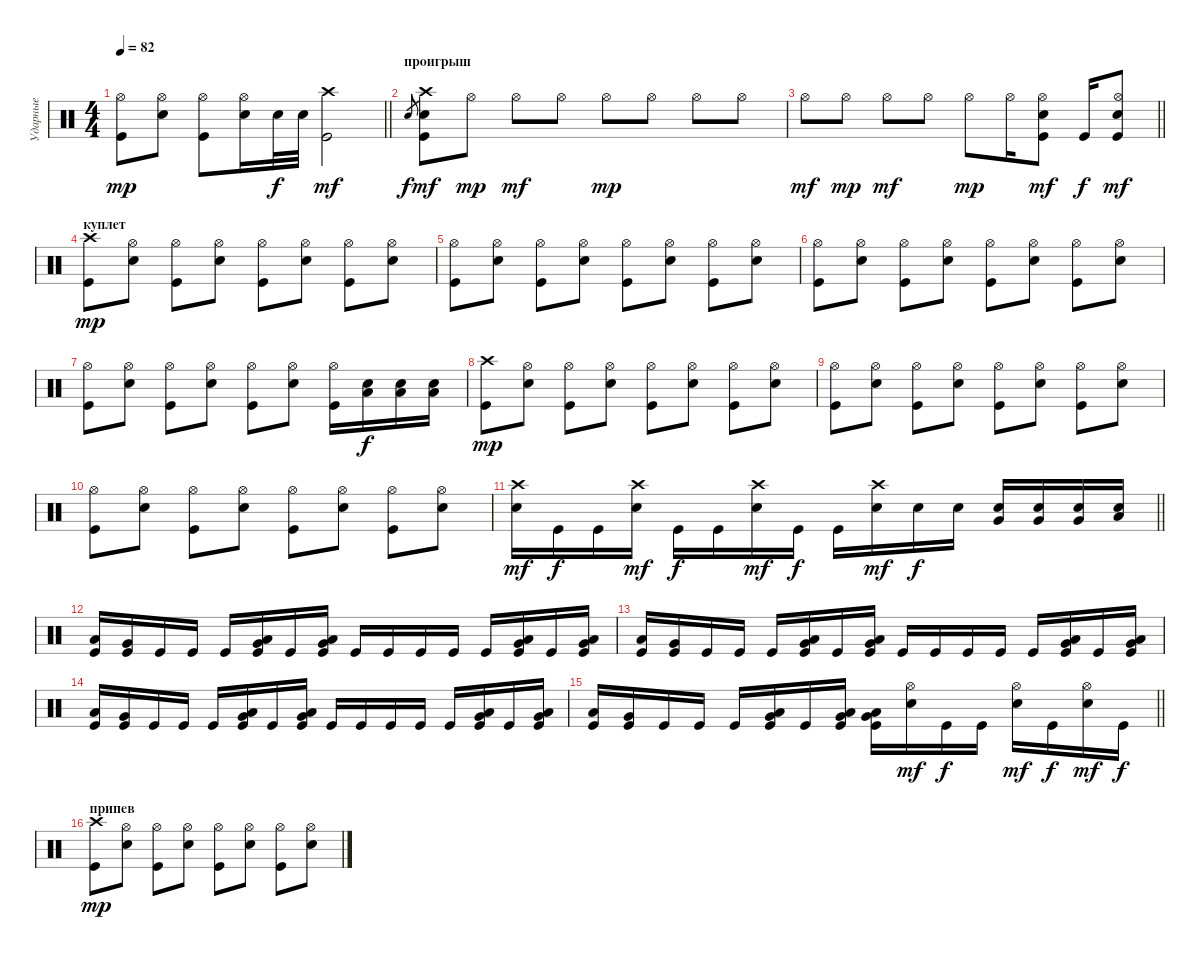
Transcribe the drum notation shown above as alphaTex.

\track ("Ударные" "Ударные") {instrument percussion}
\staff {score}
\articulation defaults
\ts (4 4)
\tempo 82
\clef neutral
\barLineRight lightlight
\ks c
("Kick (hit)" "Hi-Hat (open)").8{dy mp} ("Snare (hit) 2" "Hi-Hat (open)").8 ("Kick (hit)" "Hi-Hat (open)").8 ("Snare (hit) 2" "Hi-Hat (open)").16 "Snare (hit) 2".32{dy f} "Snare (hit) 2".32 ("Kick (hit)" "Crash high (hit)").2{dy mf} |
\section ("" "проигрыш")
"Snare (hit) 2".8{gr dy f} ("Kick (hit)" "Snare (hit) 2" "Crash high (hit)").8{dy mf} "Hi-Hat (open)".8{dy mp} "Hi-Hat (open)".8{dy mf} "Hi-Hat (open)".8 "Hi-Hat (open)".8{dy mp} "Hi-Hat (open)".8 "Hi-Hat (open)".8 "Hi-Hat (open)".8 |
\barLineRight lightlight "Hi-Hat (open)".8{dy mf} "Hi-Hat (open)".8{dy mp} "Hi-Hat (open)".8{dy mf} "Hi-Hat (open)".8 "Hi-Hat (open)".8{dy mp} "Hi-Hat (open)".16
("Kick (hit)" "Snare (hit) 2" "Hi-Hat (open)").8{dy mf} "Kick (hit)".16{dy f} ("Kick (hit)" "Snare (hit) 2" "Hi-Hat (open)").8{dy mf} |
\section ("" "куплет")
("Kick (hit)" "Crash high (hit)").8{dy mp} ("Snare (hit) 2" "Hi-Hat (open)").8 ("Kick (hit)" "Hi-Hat (open)").8 ("Snare (hit) 2" "Hi-Hat (open)").8 ("Kick (hit)" "Hi-Hat (open)").8 ("Snare (hit) 2" "Hi-Hat (open)").8 ("Kick (hit)" "Hi-Hat (open)").8 ("Snare (hit) 2" "Hi-Hat (open)").8 |
("Kick (hit)" "Hi-Hat (open)").8 ("Snare (hit) 2" "Hi-Hat (open)").8 ("Kick (hit)" "Hi-Hat (open)").8 ("Snare (hit) 2" "Hi-Hat (open)").8 ("Kick (hit)" "Hi-Hat (open)").8 ("Snare (hit) 2" "Hi-Hat (open)").8 ("Kick (hit)" "Hi-Hat (open)").8 ("Snare (hit) 2" "Hi-Hat (open)").8 |
("Kick (hit)" "Hi-Hat (open)").8 ("Snare (hit) 2" "Hi-Hat (open)").8 ("Kick (hit)" "Hi-Hat (open)").8 ("Snare (hit) 2" "Hi-Hat (open)").8 ("Kick (hit)" "Hi-Hat (open)").8 ("Snare (hit) 2" "Hi-Hat (open)").8 ("Kick (hit)" "Hi-Hat (open)").8 ("Snare (hit) 2" "Hi-Hat (open)").8 |
("Kick (hit)" "Hi-Hat (open)").8 ("Snare (hit) 2" "Hi-Hat (open)").8 ("Kick (hit)" "Hi-Hat (open)").8 ("Snare (hit) 2" "Hi-Hat (open)").8 ("Kick (hit)" "Hi-Hat (open)").8 ("Snare (hit) 2" "Hi-Hat (open)").8 ("Kick (hit)" "Hi-Hat (open)").16 ("Snare (hit) 2" "Low Floor Tom (hit)").16{dy f} ("Snare (hit) 2" "Low Floor Tom (hit)").16 ("Snare (hit) 2" "Low Floor Tom (hit)").16 |
("Kick (hit)" "Crash high (hit)").8{dy mp} ("Snare (hit) 2" "Hi-Hat (open)").8 ("Kick (hit)" "Hi-Hat (open)").8 ("Snare (hit) 2" "Hi-Hat (open)").8 ("Kick (hit)" "Hi-Hat (open)").8 ("Snare (hit) 2" "Hi-Hat (open)").8 ("Kick (hit)" "Hi-Hat (open)").8 ("Snare (hit) 2" "Hi-Hat (open)").8 |
("Kick (hit)" "Hi-Hat (open)").8 ("Snare (hit) 2" "Hi-Hat (open)").8 ("Kick (hit)" "Hi-Hat (open)").8 ("Snare (hit) 2" "Hi-Hat (open)").8 ("Kick (hit)" "Hi-Hat (open)").8 ("Snare (hit) 2" "Hi-Hat (open)").8 ("Kick (hit)" "Hi-Hat (open)").8 ("Snare (hit) 2" "Hi-Hat (open)").8 |
("Kick (hit)" "Hi-Hat (open)").8 ("Snare (hit) 2" "Hi-Hat (open)").8 ("Kick (hit)" "Hi-Hat (open)").8 ("Snare (hit) 2" "Hi-Hat (open)").8 ("Kick (hit)" "Hi-Hat (open)").8 ("Snare (hit) 2" "Hi-Hat (open)").8 ("Kick (hit)" "Hi-Hat (open)").8 ("Snare (hit) 2" "Hi-Hat (open)").8 |
\barLineRight lightlight
("Snare (hit) 2" "Crash high (hit)").16{dy mf} "Kick (hit)".16{dy f} "Kick (hit)".16 ("Snare (hit) 2" "Crash high (hit)").16{dy mf} "Kick (hit)".16{dy f} "Kick (hit)".16 ("Snare (hit) 2" "Crash high (hit)").16{dy mf} "Kick (hit)".16{dy f} "Kick (hit)".16 ("Snare (hit) 2" "Crash high (hit)").16{dy mf} "Snare (hit) 2".16{dy f} "Snare (hit) 2".16 ("Snare (hit) 2" "Very Low Tom (hit)").16 ("Snare (hit) 2" "Very Low Tom (hit)").16 ("Snare (hit) 2" "Very Low Tom (hit)").16 ("Snare (hit) 2" "Low Floor Tom (hit)").16 |
\section ("" "")
("Kick (hit)" "Low Tom (hit)").16 ("Kick (hit)" "Very Low Tom (hit)").16 "Kick (hit)".16 "Kick (hit)".16 "Kick (hit)".16 ("Kick (hit)" "Low Tom (hit)" "Very Low Tom (hit)").16 "Kick (hit)".16 ("Kick (hit)" "Low Tom (hit)" "Very Low Tom (hit)").16 "Kick (hit)".16 "Kick (hit)".16 "Kick (hit)".16 "Kick (hit)".16 "Kick (hit)".16 ("Kick (hit)" "Low Tom (hit)" "Very Low Tom (hit)").16 "Kick (hit)".16 ("Kick (hit)" "Low Tom (hit)" "Very Low Tom (hit)").16 |
("Kick (hit)" "Low Tom (hit)").16 ("Kick (hit)" "Very Low Tom (hit)").16 "Kick (hit)".16 "Kick (hit)".16 "Kick (hit)".16 ("Kick (hit)" "Low Tom (hit)" "Very Low Tom (hit)").16 "Kick (hit)".16 ("Kick (hit)" "Low Tom (hit)" "Very Low Tom (hit)").16 "Kick (hit)".16 "Kick (hit)".16 "Kick (hit)".16 "Kick (hit)".16 "Kick (hit)".16 ("Kick (hit)" "Low Tom (hit)" "Very Low Tom (hit)").16 "Kick (hit)".16 ("Kick (hit)" "Low Tom (hit)" "Very Low Tom (hit)").16 |
("Kick (hit)" "Low Tom (hit)").16 ("Kick (hit)" "Very Low Tom (hit)").16 "Kick (hit)".16 "Kick (hit)".16 "Kick (hit)".16 ("Kick (hit)" "Low Tom (hit)" "Very Low Tom (hit)").16 "Kick (hit)".16 ("Kick (hit)" "Low Tom (hit)" "Very Low Tom (hit)").16 "Kick (hit)".16 "Kick (hit)".16 "Kick (hit)".16 "Kick (hit)".16 "Kick (hit)".16 ("Kick (hit)" "Low Tom (hit)" "Very Low Tom (hit)").16 "Kick (hit)".16 ("Kick (hit)" "Low Tom (hit)" "Very Low Tom (hit)").16 |
\barLineRight lightlight
("Kick (hit)" "Low Tom (hit)").16 ("Kick (hit)" "Very Low Tom (hit)").16 "Kick (hit)".16 "Kick (hit)".16 "Kick (hit)".16 ("Kick (hit)" "Low Tom (hit)" "Very Low Tom (hit)").16 "Kick (hit)".16 ("Kick (hit)" "Low Tom (hit)" "Very Low Tom (hit)").16 ("Kick (hit)" "Low Tom (hit)" "Very Low Tom (hit)").16 ("Snare (hit) 2" "Hi-Hat (open)").16{dy mf} "Kick (hit)".16{dy f} "Kick (hit)".16 ("Snare (hit) 2" "Hi-Hat (open)").16{dy mf} "Kick (hit)".16{dy f} ("Snare (hit) 2" "Hi-Hat (open)").16{dy mf} "Kick (hit)".16{dy f} |
\section ("" "припев")
("Kick (hit)" "Crash high (hit)").8{dy mp} ("Snare (hit) 2" "Hi-Hat (open)").8 ("Kick (hit)" "Hi-Hat (open)").8 ("Snare (hit) 2" "Hi-Hat (open)").8 ("Kick (hit)" "Hi-Hat (open)").8 ("Snare (hit) 2" "Hi-Hat (open)").8 ("Kick (hit)" "Hi-Hat (open)").8 ("Snare (hit) 2" "Hi-Hat (open)").8
